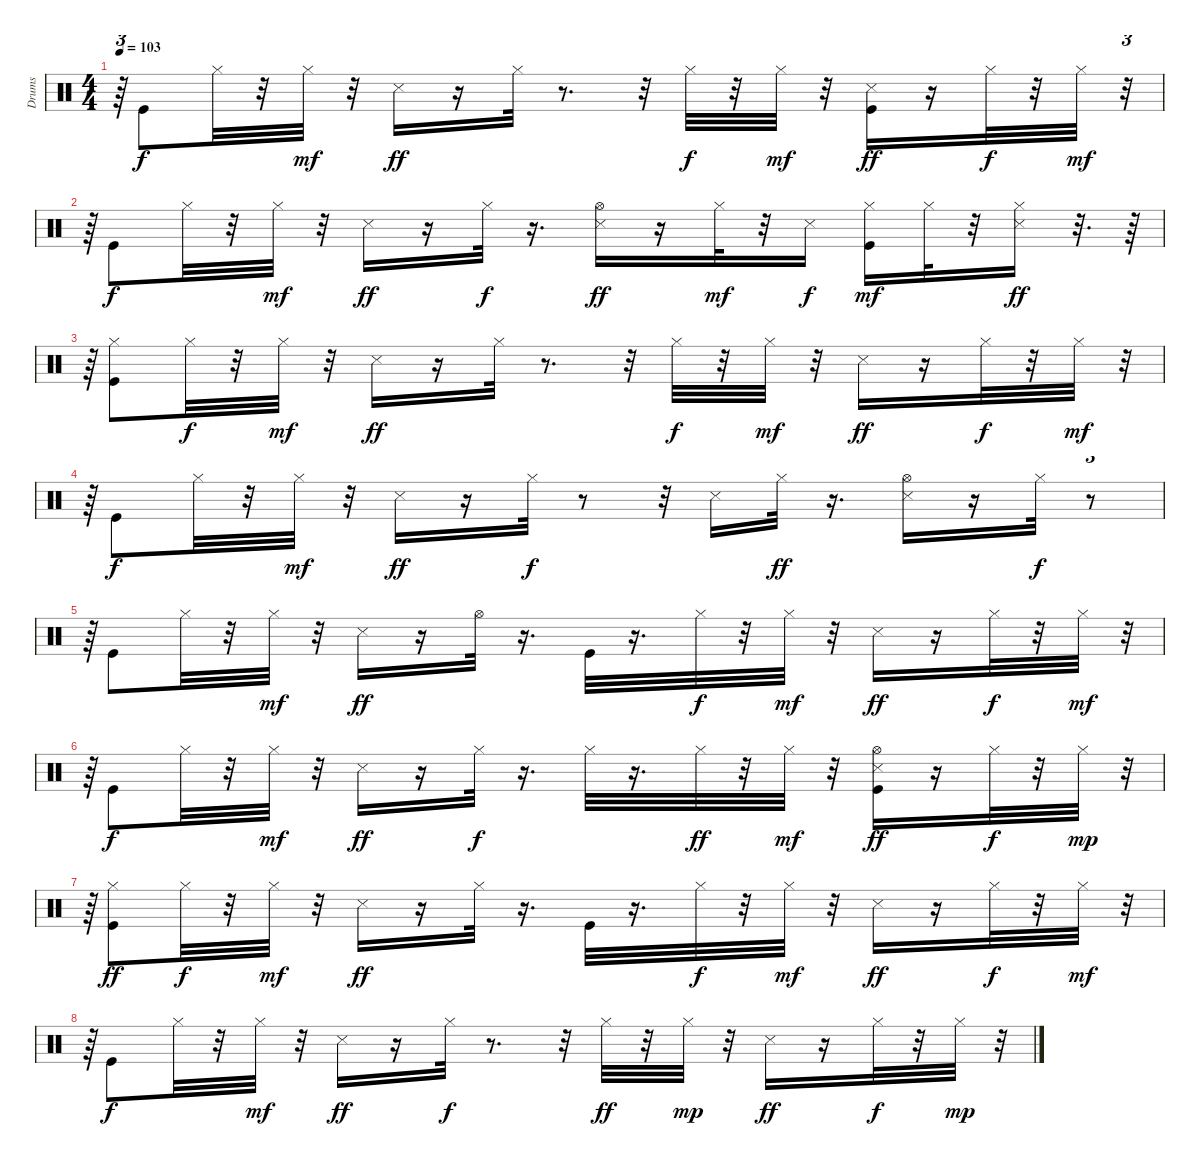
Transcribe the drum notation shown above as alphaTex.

\track ("Drums" "Drums") {instrument percussion}
\staff {score}
\articulation defaults
\ts (4 4)
\tempo 103
\clef neutral
\ks c
r.64{tu (3 2) dy mf} "Kick (hit)".8{dy f} "Hi-Hat (closed)".32 r.32 "Hi-Hat (closed)".32{dy mf} r.32 "Snare (side stick) 3".16{dy ff} r.16 "Hi-Hat (closed)".32 r.8{d} r.32 "Hi-Hat (closed)".32{dy f} r.32 "Hi-Hat (closed)".32{dy mf} r.32 ("Kick (hit)" "Snare (side stick) 3").16{dy ff} r.16 "Hi-Hat (closed)".32{dy f} r.32 "Hi-Hat (closed)".32{dy mf} r.32{tu (3 2)} |
r.64{tu (3 2)} "Kick (hit)".8{dy f} "Hi-Hat (closed)".32 r.32 "Hi-Hat (closed)".32{dy mf} r.32 "Snare (side stick) 3".16{dy ff} r.16 "Hi-Hat (closed)".32{dy f} r.16{d} ("Hi-Hat (open)" "Snare (side stick) 3").16{dy ff} r.16 "Hi-Hat (closed)".32{dy mf} r.32 "Snare (side stick) 3".16{dy f} ("Kick (hit)" "Hi-Hat (closed)").16{dy mf} "Hi-Hat (closed)".32 r.32 ("Snare (side stick) 3" "Hi-Hat (closed)").16{dy ff} r.32{d} r.64 |
r.64{tu (3 2)} ("Kick (hit)" "Hi-Hat (closed)").8 "Hi-Hat (closed)".32{dy f} r.32 "Hi-Hat (closed)".32{dy mf} r.32 "Snare (side stick) 3".16{dy ff} r.16 "Hi-Hat (closed)".32 r.8{d} r.32 "Hi-Hat (closed)".32{dy f} r.32 "Hi-Hat (closed)".32{dy mf} r.32 "Snare (side stick) 3".16{dy ff} r.16 "Hi-Hat (closed)".32{dy f} r.32 "Hi-Hat (closed)".32{dy mf} r.32{tu (3 2)} |
r.64{tu (3 2)} "Kick (hit)".8{dy f} "Hi-Hat (closed)".32 r.32 "Hi-Hat (closed)".32{dy mf} r.32 "Snare (side stick) 3".16{dy ff} r.16 "Hi-Hat (closed)".32{dy f} r.8 r.32 "Snare (side stick) 3".16 "Hi-Hat (closed)".32{dy ff} r.16{d} ("Hi-Hat (open)" "Snare (side stick) 3").16 r.16 "Hi-Hat (closed)".32{dy f} r.8{tu (3 2)} |
r.64{tu (3 2)} "Kick (hit)".8 "Hi-Hat (closed)".32 r.32 "Hi-Hat (closed)".32{dy mf} r.32 "Snare (side stick) 3".16{dy ff} r.16 "Hi-Hat (open)".32 r.16{d} "Kick (hit)".32 r.16{d} "Hi-Hat (closed)".32{dy f} r.32 "Hi-Hat (closed)".32{dy mf} r.32 "Snare (side stick) 3".16{dy ff} r.16 "Hi-Hat (closed)".32{dy f} r.32 "Hi-Hat (closed)".32{dy mf} r.32{tu (3 2)} |
r.64{tu (3 2)} "Kick (hit)".8{dy f} "Hi-Hat (closed)".32 r.32 "Hi-Hat (closed)".32{dy mf} r.32 "Snare (side stick) 3".16{dy ff} r.16 "Hi-Hat (closed)".32{dy f} r.16{d} "Hi-Hat (closed)".32 r.16{d} "Hi-Hat (closed)".32{dy ff} r.32 "Hi-Hat (closed)".32{dy mf} r.32 ("Hi-Hat (open)" "Kick (hit)" "Snare (side stick) 3").16{dy ff} r.16 "Hi-Hat (closed)".32{dy f} r.32 "Hi-Hat (closed)".32{dy mp} r.32{tu (3 2)} |
r.64{tu (3 2)} ("Kick (hit)" "Hi-Hat (closed)").8{dy ff} "Hi-Hat (closed)".32{dy f} r.32 "Hi-Hat (closed)".32{dy mf} r.32 "Snare (side stick) 3".16{dy ff} r.16 "Hi-Hat (closed)".32 r.16{d} "Kick (hit)".32 r.16{d} "Hi-Hat (closed)".32{dy f} r.32 "Hi-Hat (closed)".32{dy mf} r.32 "Snare (side stick) 3".16{dy ff} r.16 "Hi-Hat (closed)".32{dy f} r.32 "Hi-Hat (closed)".32{dy mf} r.32{tu (3 2)} |
r.64{tu (3 2)} "Kick (hit)".8{dy f} "Hi-Hat (closed)".32 r.32 "Hi-Hat (closed)".32{dy mf} r.32 "Snare (side stick) 3".16{dy ff} r.16 "Hi-Hat (closed)".32{dy f} r.8{d} r.32 "Hi-Hat (closed)".32{dy ff} r.32 "Hi-Hat (closed)".32{dy mp} r.32 "Snare (side stick) 3".16{dy ff} r.16 "Hi-Hat (closed)".32{dy f} r.32 "Hi-Hat (closed)".32{dy mp} r.32{tu (3 2)}
